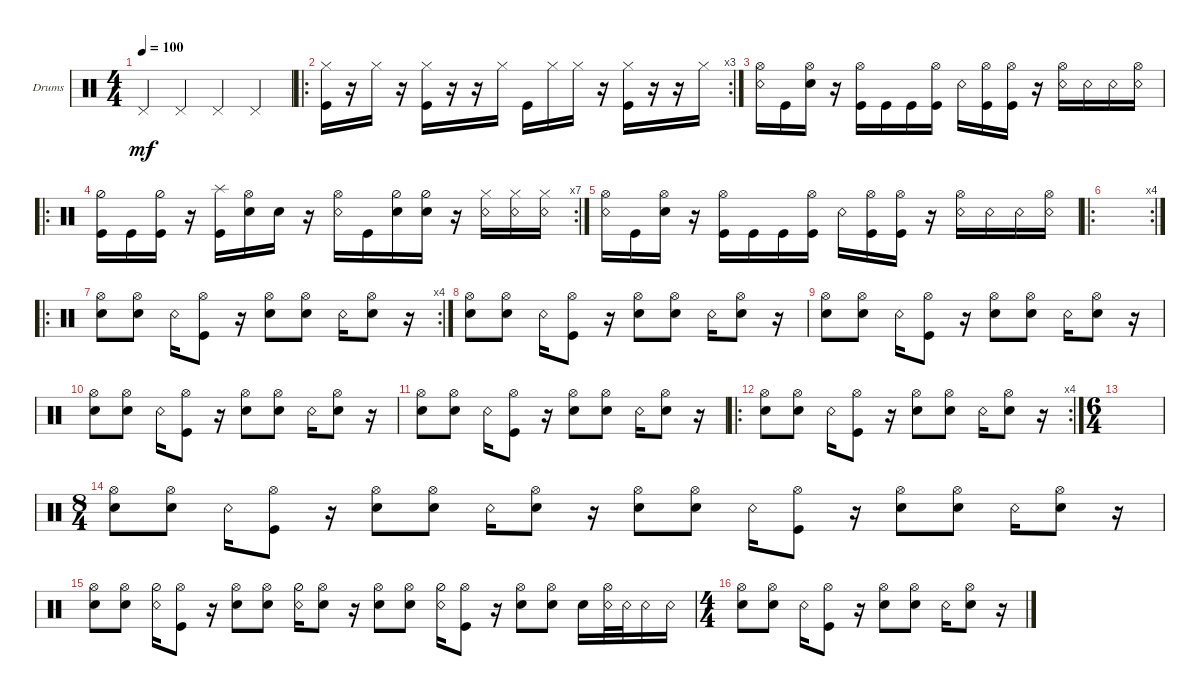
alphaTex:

\bracketExtendMode groupsimilarinstruments
\multiBarRest
\firstSystemTrackNameOrientation horizontal
\otherSystemsTrackNameOrientation horizontal
\track ("Rob" "Drums") {instrument percussion}
\staff {score}
\articulation defaults
\ts (4 4)
\tempo 100
\clef neutral
\ks c "Pedal Hi-Hat (hit)".4{dy mf} "Pedal Hi-Hat (hit)".4 "Pedal Hi-Hat (hit)".4 "Pedal Hi-Hat (hit)".4
|
\ro
\rc 3
("Hi-Hat (closed)" "Kick (hit)").16 r.16 "Hi-Hat (closed)".16 r.16 ("Hi-Hat (closed)" "Kick (hit)").16 r.16 r.16 "Hi-Hat (closed)".16 "Kick (hit)".16 "Hi-Hat (closed)".16 "Hi-Hat (closed)".16 r.16 ("Hi-Hat (closed)" "Kick (hit)").16 r.16 r.16 "Hi-Hat (closed)".16 |
("Hi-Hat (open)" "Snare (rim shot)").16 "Kick (hit)".16 ("Hi-Hat (open)" "Snare (hit) 2").16 r.16 ("Hi-Hat (open)" "Kick (hit)").16 "Kick (hit)".16 "Kick (hit)".16 ("Hi-Hat (open)" "Kick (hit)").16 "Snare (rim shot)".16 ("Hi-Hat (open)" "Kick (hit)").16 ("Hi-Hat (open)" "Kick (hit)").16 r.16 ("Hi-Hat (open)" "Snare (rim shot)").16 "Snare (rim shot)".16 "Snare (rim shot)".16 ("Hi-Hat (open)" "Snare (rim shot)").16 |
\ro
\rc 7
("Hi-Hat (half)" "Kick (hit)").16 "Kick (hit)".16 ("Hi-Hat (half)" "Kick (hit)").16 r.16 ("Kick (hit)" "Splash (hit)").16 ("Hi-Hat (open)" "Snare (hit) 2").16 "Snare (hit) 2".16 r.16 ("Snare (rim shot)" "Hi-Hat (open)").16 "Kick (hit)".16 ("Snare (hit) 2" "Hi-Hat (half)").16 ("Snare (hit) 2" "Hi-Hat (half)").16 r.16 ("Snare (rim shot)" "Hi-Hat (closed)").16 ("Snare (rim shot)" "Hi-Hat (closed)").16 ("Snare (rim shot)" "Hi-Hat (closed)").16 |
("Hi-Hat (open)" "Snare (rim shot)").16 "Kick (hit)".16 ("Hi-Hat (open)" "Snare (hit) 2").16 r.16 ("Hi-Hat (open)" "Kick (hit)").16 "Kick (hit)".16 "Kick (hit)".16 ("Hi-Hat (open)" "Kick (hit)").16 "Snare (rim shot)".16 ("Hi-Hat (open)" "Kick (hit)").16 ("Hi-Hat (open)" "Kick (hit)").16 r.16 ("Hi-Hat (open)" "Snare (rim shot)").16 "Snare (rim shot)".16 "Snare (rim shot)".16 ("Hi-Hat (open)" "Snare (rim shot)").16 |
\ro
\rc 4
|
\ro
\rc 4
("Snare (hit) 2" "Hi-Hat (open)").8 ("Snare (hit) 2" "Hi-Hat (open)").8 "Snare (rim shot)".16 ("Kick (hit)" "Hi-Hat (open)").8 r.16 ("Snare (hit) 2" "Hi-Hat (open)").8 ("Snare (hit) 2" "Hi-Hat (open)").8 "Snare (rim shot)".16 ("Snare (hit) 2" "Hi-Hat (open)").8 r.16 |
("Snare (hit) 2" "Hi-Hat (open)").8 ("Snare (hit) 2" "Hi-Hat (open)").8 "Snare (rim shot)".16 ("Kick (hit)" "Hi-Hat (open)").8 r.16 ("Snare (hit) 2" "Hi-Hat (open)").8 ("Snare (hit) 2" "Hi-Hat (open)").8 "Snare (rim shot)".16 ("Snare (hit) 2" "Hi-Hat (open)").8 r.16 |
("Snare (hit) 2" "Hi-Hat (open)").8 ("Snare (hit) 2" "Hi-Hat (open)").8 "Snare (rim shot)".16 ("Kick (hit)" "Hi-Hat (open)").8 r.16 ("Snare (hit) 2" "Hi-Hat (open)").8 ("Snare (hit) 2" "Hi-Hat (open)").8 "Snare (rim shot)".16 ("Snare (hit) 2" "Hi-Hat (open)").8 r.16 |
("Snare (hit) 2" "Hi-Hat (open)").8 ("Snare (hit) 2" "Hi-Hat (open)").8 "Snare (rim shot)".16 ("Kick (hit)" "Hi-Hat (open)").8 r.16 ("Snare (hit) 2" "Hi-Hat (open)").8 ("Snare (hit) 2" "Hi-Hat (open)").8 "Snare (rim shot)".16 ("Snare (hit) 2" "Hi-Hat (open)").8 r.16 |
("Snare (hit) 2" "Hi-Hat (open)").8 ("Snare (hit) 2" "Hi-Hat (open)").8 "Snare (rim shot)".16 ("Kick (hit)" "Hi-Hat (open)").8 r.16 ("Snare (hit) 2" "Hi-Hat (open)").8 ("Snare (hit) 2" "Hi-Hat (open)").8 "Snare (rim shot)".16 ("Snare (hit) 2" "Hi-Hat (open)").8 r.16 |
\ro
\rc 4
("Snare (hit) 2" "Hi-Hat (open)").8 ("Snare (hit) 2" "Hi-Hat (open)").8 "Snare (rim shot)".16 ("Kick (hit)" "Hi-Hat (open)").8 r.16 ("Snare (hit) 2" "Hi-Hat (open)").8 ("Snare (hit) 2" "Hi-Hat (open)").8 "Snare (rim shot)".16 ("Snare (hit) 2" "Hi-Hat (open)").8 r.16 |
\ts (6 4)
|
\ts (8 4)
("Snare (hit) 2" "Hi-Hat (open)").8 ("Snare (hit) 2" "Hi-Hat (open)").8 "Snare (rim shot)".16 ("Kick (hit)" "Hi-Hat (open)").8 r.16 ("Snare (hit) 2" "Hi-Hat (open)").8 ("Snare (hit) 2" "Hi-Hat (open)").8 "Snare (rim shot)".16 ("Snare (hit) 2" "Hi-Hat (open)").8 r.16 ("Snare (hit) 2" "Hi-Hat (open)").8 ("Snare (hit) 2" "Hi-Hat (open)").8 "Snare (rim shot)".16 ("Kick (hit)" "Hi-Hat (open)").8 r.16 ("Snare (hit) 2" "Hi-Hat (open)").8 ("Snare (hit) 2" "Hi-Hat (open)").8 "Snare (rim shot)".16 ("Snare (hit) 2" "Hi-Hat (open)").8 r.16 |
("Snare (hit) 2" "Hi-Hat (open)").8 ("Snare (hit) 2" "Hi-Hat (open)").8 ("Snare (rim shot)" "Hi-Hat (half)").16 ("Kick (hit)" "Hi-Hat (open)").8 r.16 ("Snare (hit) 2" "Hi-Hat (open)").8 ("Snare (hit) 2" "Hi-Hat (open)").8 ("Snare (rim shot)" "Hi-Hat (half)").16 ("Snare (hit) 2" "Hi-Hat (open)").8 r.16 ("Snare (hit) 2" "Hi-Hat (open)").8 ("Snare (hit) 2" "Hi-Hat (open)").8 ("Snare (rim shot)" "Hi-Hat (half)").16 ("Kick (hit)" "Hi-Hat (open)").8 r.16 ("Snare (hit) 2" "Hi-Hat (open)").8 ("Snare (hit) 2" "Hi-Hat (open)").8 "Snare (hit) 2".16 ("Snare (rim shot)" "Hi-Hat (open)").32 "Snare (rim shot)".32 "Snare (rim shot)".16 "Snare (rim shot)".16 |
\ts (4 4)
("Snare (hit) 2" "Hi-Hat (open)").8 ("Snare (hit) 2" "Hi-Hat (open)").8 "Snare (rim shot)".16 ("Kick (hit)" "Hi-Hat (open)").8 r.16 ("Snare (hit) 2" "Hi-Hat (open)").8 ("Snare (hit) 2" "Hi-Hat (open)").8 "Snare (rim shot)".16 ("Snare (hit) 2" "Hi-Hat (open)").8 r.16
